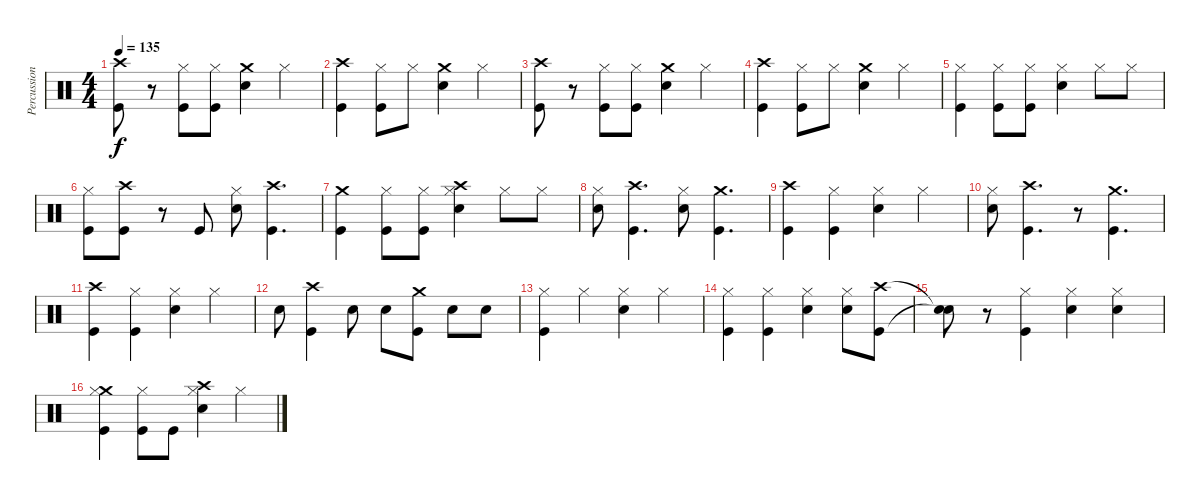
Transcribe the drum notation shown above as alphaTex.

\track ("Percussions" "Percussion") {instrument percussion}
\staff {score}
\articulation defaults
\ts (4 4)
\tempo 135
\clef neutral
\ks c
("Crash high (hit)" "Kick (hit)").8{dy f} r.8 ("Kick (hit)" "Hi-Hat (closed)").8 ("Kick (hit)" "Hi-Hat (closed)").8 ("Crash medium (hit)" "Snare (hit) 2").4 "Hi-Hat (closed)".4 |
("Crash high (hit)" "Kick (hit)").4 ("Hi-Hat (closed)" "Kick (hit)").8 "Hi-Hat (closed)".8 ("Crash medium (hit)" "Snare (hit) 2").4 "Hi-Hat (closed)".4 |
("Crash high (hit)" "Kick (hit)").8 r.8 ("Kick (hit)" "Hi-Hat (closed)").8 ("Kick (hit)" "Hi-Hat (closed)").8 ("Crash medium (hit)" "Snare (hit) 2").4 "Hi-Hat (closed)".4 |
("Crash high (hit)" "Kick (hit)").4 ("Hi-Hat (closed)" "Kick (hit)").8 "Hi-Hat (closed)".8 ("Crash medium (hit)" "Snare (hit) 2").4 "Hi-Hat (closed)".4 |
("Hi-Hat (closed)" "Kick (hit)").4 ("Hi-Hat (closed)" "Kick (hit)").8 ("Hi-Hat (closed)" "Kick (hit)").8 ("Hi-Hat (closed)" "Snare (hit) 2").4 "Hi-Hat (closed)".8 "Hi-Hat (closed)".8 |
("Kick (hit)" "Hi-Hat (closed)").8 ("Crash high (hit)" "Kick (hit)").8 r.8 "Kick (hit)".8 ("Hi-Hat (closed)" "Snare (hit) 2").8 ("Crash high (hit)" "Kick (hit)").4{d} |
("Crash medium (hit)" "Kick (hit)").4 ("Kick (hit)" "Hi-Hat (closed)").8 ("Kick (hit)" "Hi-Hat (closed)").8 ("Hi-Hat (closed)" "Crash high (hit)" "Snare (hit) 2").4 "Hi-Hat (closed)".8 "Hi-Hat (closed)".8 |
("Hi-Hat (closed)" "Snare (hit) 2").8 ("Kick (hit)" "Crash high (hit)").4{d} ("Hi-Hat (closed)" "Snare (hit) 2").8 ("Crash medium (hit)" "Kick (hit)").4{d} |
("Kick (hit)" "Crash high (hit)").4 ("Kick (hit)" "Hi-Hat (closed)").4 ("Snare (hit) 2" "Hi-Hat (closed)").4 "Hi-Hat (closed)".4 |
("Hi-Hat (closed)" "Snare (hit) 2").8 ("Kick (hit)" "Crash high (hit)").4{d} r.8 ("Kick (hit)" "Crash medium (hit)").4{d} |
("Kick (hit)" "Crash high (hit)").4 ("Kick (hit)" "Hi-Hat (closed)").4 ("Snare (hit) 2" "Hi-Hat (closed)").4 "Hi-Hat (closed)".4 |
"Snare (hit) 2".8 ("Kick (hit)" "Crash high (hit)").4 "Snare (hit) 2".8 "Snare (hit) 2".8 ("Kick (hit)" "Crash medium (hit)").8 "Snare (hit) 2".8 "Snare (hit) 2".8 |
("Kick (hit)" "Hi-Hat (closed)").4 "Hi-Hat (closed)".4 ("Snare (hit) 2" "Hi-Hat (closed)").4 "Hi-Hat (closed)".4 |
("Kick (hit)" "Hi-Hat (closed)").4 ("Kick (hit)" "Hi-Hat (closed)").4 ("Snare (hit) 2" "Hi-Hat (closed)").4 ("Snare (hit) 2" "Hi-Hat (closed)").8 ("Kick (hit)" "Crash high (hit)").8 |
("Snare (hit)"{t} "Snare (hit)"{t}).8 r.8 ("Kick (hit)" "Hi-Hat (closed)").4 ("Snare (hit) 2" "Hi-Hat (closed)").4 ("Snare (hit) 2" "Hi-Hat (closed)").4 |
("Crash medium (hit)" "Kick (hit)" "Hi-Hat (closed)").4 ("Kick (hit)" "Hi-Hat (closed)").8 "Kick (hit)".8 ("Crash high (hit)" "Snare (hit) 2" "Hi-Hat (closed)").4 "Hi-Hat (closed)".4
